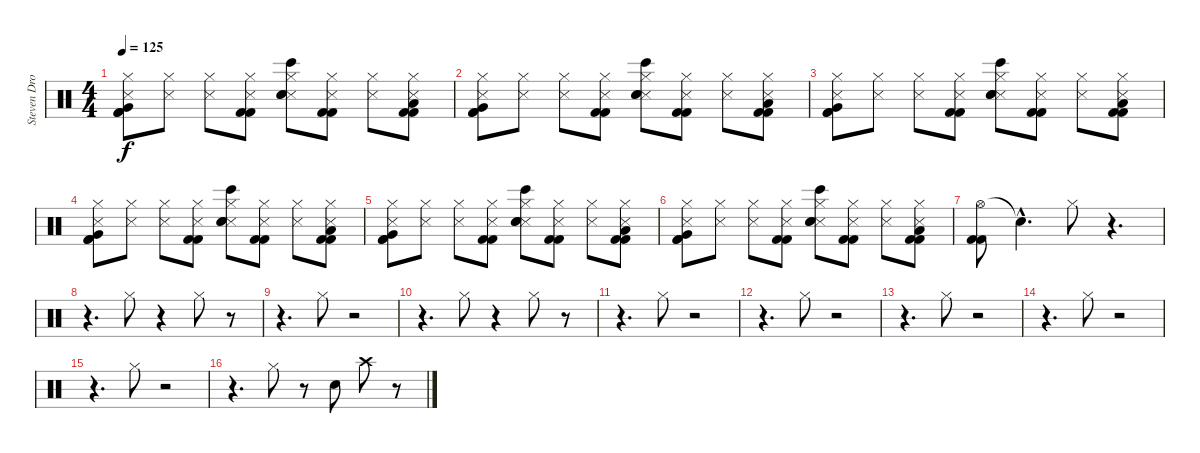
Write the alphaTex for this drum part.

\track ("Steven Drozd (Drums)" "Steven Dro") {instrument percussion}
\staff {score}
\articulation defaults
\ts (4 4)
\tempo 125
\clef neutral
\ks c
("Hi-Hat (closed)" "Metronome (hit)" "Kick (hit) 2" "Very Low Tom (hit)" "Kick (hit) 2").8{dy f} ("Hi-Hat (closed)" "Metronome (hit)").8 ("Hi-Hat (closed)" "Metronome (hit)").8 ("Hi-Hat (closed)" "Metronome (hit)" "Kick (hit) 2" "Kick (hit) 2").8 ("Hi-Hat (closed)" "Metronome (hit)" "Bongo High (hit)" "Snare (hit) 2" "Snare (hit) 2").8 ("Hi-Hat (closed)" "Metronome (hit)" "Kick (hit) 2" "Kick (hit) 2").8 ("Hi-Hat (closed)" "Metronome (hit)").8 ("Hi-Hat (closed)" "Metronome (hit)" "Kick (hit) 2" "Low Floor Tom (hit)" "Kick (hit) 2").8 |
("Hi-Hat (closed)" "Metronome (hit)" "Kick (hit) 2" "Very Low Tom (hit)" "Kick (hit) 2").8 ("Hi-Hat (closed)" "Metronome (hit)").8 ("Hi-Hat (closed)" "Metronome (hit)").8 ("Hi-Hat (closed)" "Metronome (hit)" "Kick (hit) 2" "Kick (hit) 2").8 ("Hi-Hat (closed)" "Metronome (hit)" "Bongo High (hit)" "Snare (hit) 2" "Snare (hit) 2").8 ("Hi-Hat (closed)" "Metronome (hit)" "Kick (hit) 2" "Kick (hit) 2").8 ("Hi-Hat (closed)" "Metronome (hit)").8 ("Hi-Hat (closed)" "Metronome (hit)" "Kick (hit) 2" "Low Floor Tom (hit)" "Kick (hit) 2").8 |
("Hi-Hat (closed)" "Metronome (hit)" "Kick (hit) 2" "Very Low Tom (hit)" "Kick (hit) 2").8 ("Hi-Hat (closed)" "Metronome (hit)").8 ("Hi-Hat (closed)" "Metronome (hit)").8 ("Hi-Hat (closed)" "Metronome (hit)" "Kick (hit) 2" "Kick (hit) 2").8 ("Hi-Hat (closed)" "Metronome (hit)" "Bongo High (hit)" "Snare (hit) 2" "Snare (hit) 2").8 ("Hi-Hat (closed)" "Metronome (hit)" "Kick (hit) 2" "Kick (hit) 2").8 ("Hi-Hat (closed)" "Metronome (hit)").8 ("Hi-Hat (closed)" "Metronome (hit)" "Kick (hit) 2" "Low Floor Tom (hit)" "Kick (hit) 2").8 |
("Hi-Hat (closed)" "Metronome (hit)" "Kick (hit) 2" "Very Low Tom (hit)" "Kick (hit) 2").8 ("Hi-Hat (closed)" "Metronome (hit)").8 ("Hi-Hat (closed)" "Metronome (hit)").8 ("Hi-Hat (closed)" "Metronome (hit)" "Kick (hit) 2" "Kick (hit) 2").8 ("Hi-Hat (closed)" "Metronome (hit)" "Bongo High (hit)" "Snare (hit) 2" "Snare (hit) 2").8 ("Hi-Hat (closed)" "Metronome (hit)" "Kick (hit) 2" "Kick (hit) 2").8 ("Hi-Hat (closed)" "Metronome (hit)").8 ("Hi-Hat (closed)" "Metronome (hit)" "Kick (hit) 2" "Low Floor Tom (hit)" "Kick (hit) 2").8 |
("Hi-Hat (closed)" "Metronome (hit)" "Kick (hit) 2" "Very Low Tom (hit)" "Kick (hit) 2").8 ("Hi-Hat (closed)" "Metronome (hit)").8 ("Hi-Hat (closed)" "Metronome (hit)").8 ("Hi-Hat (closed)" "Metronome (hit)" "Kick (hit) 2" "Kick (hit) 2").8 ("Hi-Hat (closed)" "Metronome (hit)" "Bongo High (hit)" "Snare (hit) 2" "Snare (hit) 2").8 ("Hi-Hat (closed)" "Metronome (hit)" "Kick (hit) 2" "Kick (hit) 2").8 ("Hi-Hat (closed)" "Metronome (hit)").8 ("Hi-Hat (closed)" "Metronome (hit)" "Kick (hit) 2" "Low Floor Tom (hit)" "Kick (hit) 2").8 |
("Hi-Hat (closed)" "Metronome (hit)" "Kick (hit) 2" "Very Low Tom (hit)" "Kick (hit) 2").8 ("Hi-Hat (closed)" "Metronome (hit)").8 ("Hi-Hat (closed)" "Metronome (hit)").8 ("Hi-Hat (closed)" "Metronome (hit)" "Kick (hit) 2" "Kick (hit) 2").8 ("Hi-Hat (closed)" "Metronome (hit)" "Bongo High (hit)" "Snare (hit) 2" "Snare (hit) 2").8 ("Hi-Hat (closed)" "Metronome (hit)" "Kick (hit) 2" "Kick (hit) 2").8 ("Hi-Hat (closed)" "Metronome (hit)").8 ("Hi-Hat (closed)" "Metronome (hit)" "Kick (hit) 2" "Low Floor Tom (hit)" "Kick (hit) 2").8 |
("Hi-Hat (open)" "Kick (hit) 2" "Kick (hit) 2").8 "Snare (hit)"{hac t}.4{d} "Hi-Hat (closed)".8 r.4{d} |
r.4{d} "Hi-Hat (closed)".8 r.4 "Hi-Hat (closed)".8 r.8 |
r.4{d} "Hi-Hat (closed)".8 r.2 |
r.4{d} "Hi-Hat (closed)".8 r.4 "Hi-Hat (closed)".8 r.8 |
r.4{d} "Hi-Hat (closed)".8 r.2 |
r.4{d} "Hi-Hat (closed)".8 r.2 |
r.4{d} "Hi-Hat (closed)".8 r.2 |
r.4{d} "Hi-Hat (closed)".8 r.2 |
r.4{d} "Hi-Hat (closed)".8 r.2 |
r.4{d} "Hi-Hat (closed)".8 r.8 "Snare (hit) 2"{tr (38 64)}.8 "Crash high (hit)".8 r.8
